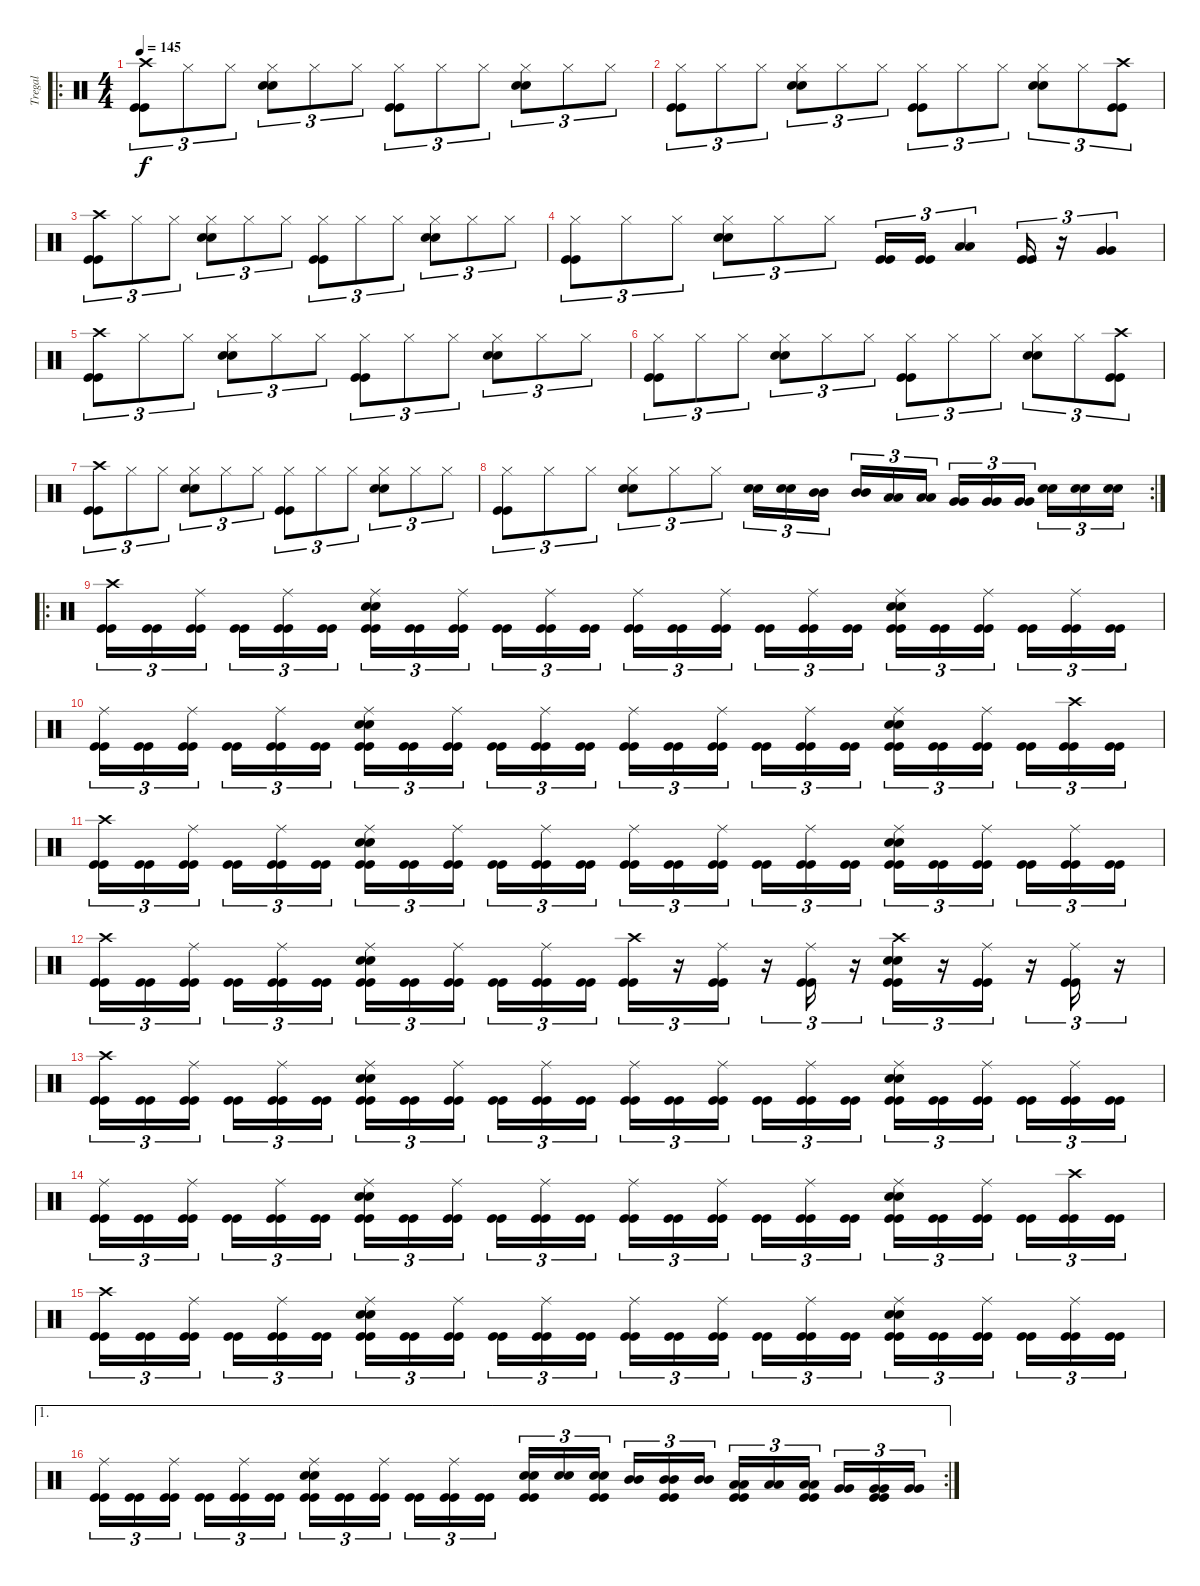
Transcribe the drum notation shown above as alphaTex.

\track ("Tregal" "Tregal") {instrument percussion}
\staff {score}
\articulation defaults
\ro
\ts (4 4)
\tempo 145
\clef neutral
\ks c
("Crash high (hit)" "Kick (hit)" "Kick (hit)").8{tu (3 2) dy f} "Hi-Hat (closed)".8{tu (3 2)} "Hi-Hat (closed)".8{tu (3 2)} ("Hi-Hat (closed)" "Snare (hit) 2" "Snare (hit) 2").8{tu (3 2)} "Hi-Hat (closed)".8{tu (3 2)} "Hi-Hat (closed)".8{tu (3 2)} ("Kick (hit)" "Kick (hit)" "Hi-Hat (closed)").8{tu (3 2)} "Hi-Hat (closed)".8{tu (3 2)} "Hi-Hat (closed)".8{tu (3 2)} ("Hi-Hat (closed)" "Snare (hit) 2" "Snare (hit) 2").8{tu (3 2)} "Hi-Hat (closed)".8{tu (3 2)} "Hi-Hat (closed)".8{tu (3 2)} |
("Kick (hit)" "Kick (hit)" "Hi-Hat (closed)").8{tu (3 2)} "Hi-Hat (closed)".8{tu (3 2)} "Hi-Hat (closed)".8{tu (3 2)} ("Hi-Hat (closed)" "Snare (hit) 2" "Snare (hit) 2").8{tu (3 2)} "Hi-Hat (closed)".8{tu (3 2)} "Hi-Hat (closed)".8{tu (3 2)} ("Kick (hit)" "Kick (hit)" "Hi-Hat (closed)").8{tu (3 2)} "Hi-Hat (closed)".8{tu (3 2)} "Hi-Hat (closed)".8{tu (3 2)} ("Hi-Hat (closed)" "Snare (hit) 2" "Snare (hit) 2").8{tu (3 2)} "Hi-Hat (closed)".8{tu (3 2)} ("Crash high (hit)" "Kick (hit)" "Kick (hit)").8{tu (3 2)} |
("Crash high (hit)" "Kick (hit)" "Kick (hit)").8{tu (3 2)} "Hi-Hat (closed)".8{tu (3 2)} "Hi-Hat (closed)".8{tu (3 2)} ("Hi-Hat (closed)" "Snare (hit) 2" "Snare (hit) 2").8{tu (3 2)} "Hi-Hat (closed)".8{tu (3 2)} "Hi-Hat (closed)".8{tu (3 2)} ("Kick (hit)" "Kick (hit)" "Hi-Hat (closed)").8{tu (3 2)} "Hi-Hat (closed)".8{tu (3 2)} "Hi-Hat (closed)".8{tu (3 2)} ("Hi-Hat (closed)" "Snare (hit) 2" "Snare (hit) 2").8{tu (3 2)} "Hi-Hat (closed)".8{tu (3 2)} "Hi-Hat (closed)".8{tu (3 2)} |
("Kick (hit)" "Kick (hit)" "Hi-Hat (closed)").8{tu (3 2)} "Hi-Hat (closed)".8{tu (3 2)} "Hi-Hat (closed)".8{tu (3 2)} ("Hi-Hat (closed)" "Snare (hit) 2" "Snare (hit) 2").8{tu (3 2)} "Hi-Hat (closed)".8{tu (3 2)} "Hi-Hat (closed)".8{tu (3 2)} ("Kick (hit)" "Kick (hit)").16{tu (3 2)} ("Kick (hit)" "Kick (hit)").16{tu (3 2)} ("Low Tom (hit)" "Low Tom (hit)").4{tu (3 2)} ("Kick (hit)" "Kick (hit)").16{tu (3 2)} r.16{tu (3 2)} ("Very Low Tom (hit)" "Very Low Tom (hit)").4{tu (3 2)} |
("Crash high (hit)" "Kick (hit)" "Kick (hit)").8{tu (3 2)} "Hi-Hat (closed)".8{tu (3 2)} "Hi-Hat (closed)".8{tu (3 2)} ("Hi-Hat (closed)" "Snare (hit) 2" "Snare (hit) 2").8{tu (3 2)} "Hi-Hat (closed)".8{tu (3 2)} "Hi-Hat (closed)".8{tu (3 2)} ("Kick (hit)" "Kick (hit)" "Hi-Hat (closed)").8{tu (3 2)} "Hi-Hat (closed)".8{tu (3 2)} "Hi-Hat (closed)".8{tu (3 2)} ("Hi-Hat (closed)" "Snare (hit) 2" "Snare (hit) 2").8{tu (3 2)} "Hi-Hat (closed)".8{tu (3 2)} "Hi-Hat (closed)".8{tu (3 2)} |
("Kick (hit)" "Kick (hit)" "Hi-Hat (closed)").8{tu (3 2)} "Hi-Hat (closed)".8{tu (3 2)} "Hi-Hat (closed)".8{tu (3 2)} ("Hi-Hat (closed)" "Snare (hit) 2" "Snare (hit) 2").8{tu (3 2)} "Hi-Hat (closed)".8{tu (3 2)} "Hi-Hat (closed)".8{tu (3 2)} ("Kick (hit)" "Kick (hit)" "Hi-Hat (closed)").8{tu (3 2)} "Hi-Hat (closed)".8{tu (3 2)} "Hi-Hat (closed)".8{tu (3 2)} ("Hi-Hat (closed)" "Snare (hit) 2" "Snare (hit) 2").8{tu (3 2)} "Hi-Hat (closed)".8{tu (3 2)} ("Crash high (hit)" "Kick (hit)" "Kick (hit)").8{tu (3 2)} |
("Crash high (hit)" "Kick (hit)" "Kick (hit)").8{tu (3 2)} "Hi-Hat (closed)".8{tu (3 2)} "Hi-Hat (closed)".8{tu (3 2)} ("Hi-Hat (closed)" "Snare (hit) 2" "Snare (hit) 2").8{tu (3 2)} "Hi-Hat (closed)".8{tu (3 2)} "Hi-Hat (closed)".8{tu (3 2)} ("Kick (hit)" "Kick (hit)" "Hi-Hat (closed)").8{tu (3 2)} "Hi-Hat (closed)".8{tu (3 2)} "Hi-Hat (closed)".8{tu (3 2)} ("Hi-Hat (closed)" "Snare (hit) 2" "Snare (hit) 2").8{tu (3 2)} "Hi-Hat (closed)".8{tu (3 2)} "Hi-Hat (closed)".8{tu (3 2)} |
\rc 2
("Kick (hit)" "Kick (hit)" "Hi-Hat (closed)").8{tu (3 2)} "Hi-Hat (closed)".8{tu (3 2)} "Hi-Hat (closed)".8{tu (3 2)} ("Hi-Hat (closed)" "Snare (hit) 2" "Snare (hit) 2").8{tu (3 2)} "Hi-Hat (closed)".8{tu (3 2)} "Hi-Hat (closed)".8{tu (3 2)} ("Snare (hit) 2" "Snare (hit) 2").16{tu (3 2)} ("Snare (hit) 2" "Snare (hit) 2").16{tu (3 2)} ("Mid Tom (hit)" "Mid Tom (hit)").16{tu (3 2)} ("Mid Tom (hit)" "Mid Tom (hit)").16{tu (3 2)} ("Low Tom (hit)" "Low Tom (hit)").16{tu (3 2)} ("Low Tom (hit)" "Low Tom (hit)").16{tu (3 2)} ("Very Low Tom (hit)" "Very Low Tom (hit)").16{tu (3 2)} ("Very Low Tom (hit)" "Very Low Tom (hit)").16{tu (3 2)} ("Very Low Tom (hit)" "Very Low Tom (hit)").16{tu (3 2)} ("Snare (hit) 2" "Snare (hit) 2").16{tu (3 2)} ("Snare (hit) 2" "Snare (hit) 2").16{tu (3 2)} ("Snare (hit) 2" "Snare (hit) 2").16{tu (3 2)} |
\ro
("Crash high (hit)" "Kick (hit)" "Kick (hit)").16{tu (3 2)} ("Kick (hit)" "Kick (hit)").16{tu (3 2)} ("Kick (hit)" "Kick (hit)" "Ride (middle)").16{tu (3 2)} ("Kick (hit)" "Kick (hit)").16{tu (3 2)} ("Kick (hit)" "Kick (hit)" "Ride (middle)").16{tu (3 2)} ("Kick (hit)" "Kick (hit)").16{tu (3 2)} ("Kick (hit)" "Kick (hit)" "Ride (middle)" "Snare (hit) 2" "Snare (hit) 2").16{tu (3 2)} ("Kick (hit)" "Kick (hit)").16{tu (3 2)} ("Kick (hit)" "Kick (hit)" "Ride (middle)").16{tu (3 2)} ("Kick (hit)" "Kick (hit)").16{tu (3 2)} ("Kick (hit)" "Kick (hit)" "Ride (middle)").16{tu (3 2)} ("Kick (hit)" "Kick (hit)").16{tu (3 2)} ("Kick (hit)" "Kick (hit)" "Ride (middle)").16{tu (3 2)} ("Kick (hit)" "Kick (hit)").16{tu (3 2)} ("Kick (hit)" "Kick (hit)" "Ride (middle)").16{tu (3 2)} ("Kick (hit)" "Kick (hit)").16{tu (3 2)} ("Kick (hit)" "Kick (hit)" "Ride (middle)").16{tu (3 2)} ("Kick (hit)" "Kick (hit)").16{tu (3 2)} ("Kick (hit)" "Kick (hit)" "Ride (middle)" "Snare (hit) 2" "Snare (hit) 2").16{tu (3 2)} ("Kick (hit)" "Kick (hit)").16{tu (3 2)} ("Kick (hit)" "Kick (hit)" "Ride (middle)").16{tu (3 2)} ("Kick (hit)" "Kick (hit)").16{tu (3 2)} ("Kick (hit)" "Kick (hit)" "Ride (middle)").16{tu (3 2)} ("Kick (hit)" "Kick (hit)").16{tu (3 2)} |
("Kick (hit)" "Kick (hit)" "Ride (middle)").16{tu (3 2)} ("Kick (hit)" "Kick (hit)").16{tu (3 2)} ("Kick (hit)" "Kick (hit)" "Ride (middle)").16{tu (3 2)} ("Kick (hit)" "Kick (hit)").16{tu (3 2)} ("Kick (hit)" "Kick (hit)" "Ride (middle)").16{tu (3 2)} ("Kick (hit)" "Kick (hit)").16{tu (3 2)} ("Kick (hit)" "Kick (hit)" "Ride (middle)" "Snare (hit) 2" "Snare (hit) 2").16{tu (3 2)} ("Kick (hit)" "Kick (hit)").16{tu (3 2)} ("Kick (hit)" "Kick (hit)" "Ride (middle)").16{tu (3 2)} ("Kick (hit)" "Kick (hit)").16{tu (3 2)} ("Kick (hit)" "Kick (hit)" "Ride (middle)").16{tu (3 2)} ("Kick (hit)" "Kick (hit)").16{tu (3 2)} ("Kick (hit)" "Kick (hit)" "Ride (middle)").16{tu (3 2)} ("Kick (hit)" "Kick (hit)").16{tu (3 2)} ("Kick (hit)" "Kick (hit)" "Ride (middle)").16{tu (3 2)} ("Kick (hit)" "Kick (hit)").16{tu (3 2)} ("Kick (hit)" "Kick (hit)" "Ride (middle)").16{tu (3 2)} ("Kick (hit)" "Kick (hit)").16{tu (3 2)} ("Kick (hit)" "Kick (hit)" "Ride (middle)" "Snare (hit) 2" "Snare (hit) 2").16{tu (3 2)} ("Kick (hit)" "Kick (hit)").16{tu (3 2)} ("Kick (hit)" "Kick (hit)" "Ride (middle)").16{tu (3 2)} ("Kick (hit)" "Kick (hit)").16{tu (3 2)} ("Crash high (hit)" "Kick (hit)" "Kick (hit)").16{tu (3 2)} ("Kick (hit)" "Kick (hit)").16{tu (3 2)} |
("Crash high (hit)" "Kick (hit)" "Kick (hit)").16{tu (3 2)} ("Kick (hit)" "Kick (hit)").16{tu (3 2)} ("Kick (hit)" "Kick (hit)" "Ride (middle)").16{tu (3 2)} ("Kick (hit)" "Kick (hit)").16{tu (3 2)} ("Kick (hit)" "Kick (hit)" "Ride (middle)").16{tu (3 2)} ("Kick (hit)" "Kick (hit)").16{tu (3 2)} ("Kick (hit)" "Kick (hit)" "Ride (middle)" "Snare (hit) 2" "Snare (hit) 2").16{tu (3 2)} ("Kick (hit)" "Kick (hit)").16{tu (3 2)} ("Kick (hit)" "Kick (hit)" "Ride (middle)").16{tu (3 2)} ("Kick (hit)" "Kick (hit)").16{tu (3 2)} ("Kick (hit)" "Kick (hit)" "Ride (middle)").16{tu (3 2)} ("Kick (hit)" "Kick (hit)").16{tu (3 2)} ("Kick (hit)" "Kick (hit)" "Ride (middle)").16{tu (3 2)} ("Kick (hit)" "Kick (hit)").16{tu (3 2)} ("Kick (hit)" "Kick (hit)" "Ride (middle)").16{tu (3 2)} ("Kick (hit)" "Kick (hit)").16{tu (3 2)} ("Kick (hit)" "Kick (hit)" "Ride (middle)").16{tu (3 2)} ("Kick (hit)" "Kick (hit)").16{tu (3 2)} ("Kick (hit)" "Kick (hit)" "Ride (middle)" "Snare (hit) 2" "Snare (hit) 2").16{tu (3 2)} ("Kick (hit)" "Kick (hit)").16{tu (3 2)} ("Kick (hit)" "Kick (hit)" "Ride (middle)").16{tu (3 2)} ("Kick (hit)" "Kick (hit)").16{tu (3 2)} ("Kick (hit)" "Kick (hit)" "Ride (middle)").16{tu (3 2)} ("Kick (hit)" "Kick (hit)").16{tu (3 2)} |
("Crash high (hit)" "Kick (hit)" "Kick (hit)").16{tu (3 2)} ("Kick (hit)" "Kick (hit)").16{tu (3 2)} ("Kick (hit)" "Kick (hit)" "Ride (middle)").16{tu (3 2)} ("Kick (hit)" "Kick (hit)").16{tu (3 2)} ("Kick (hit)" "Kick (hit)" "Ride (middle)").16{tu (3 2)} ("Kick (hit)" "Kick (hit)").16{tu (3 2)} ("Kick (hit)" "Kick (hit)" "Ride (middle)" "Snare (hit) 2" "Snare (hit) 2").16{tu (3 2)} ("Kick (hit)" "Kick (hit)").16{tu (3 2)} ("Kick (hit)" "Kick (hit)" "Ride (middle)").16{tu (3 2)} ("Kick (hit)" "Kick (hit)").16{tu (3 2)} ("Kick (hit)" "Kick (hit)" "Ride (middle)").16{tu (3 2)} ("Kick (hit)" "Kick (hit)").16{tu (3 2)} ("Crash high (hit)" "Kick (hit)" "Kick (hit)").16{tu (3 2)} r.16{tu (3 2)} ("Kick (hit)" "Kick (hit)" "Ride (middle)").16{tu (3 2)} r.16{tu (3 2)} ("Kick (hit)" "Kick (hit)" "Ride (middle)").16{tu (3 2)} r.16{tu (3 2)} ("Crash high (hit)" "Kick (hit)" "Kick (hit)" "Snare (hit) 2" "Snare (hit) 2").16{tu (3 2)} r.16{tu (3 2)} ("Kick (hit)" "Kick (hit)" "Ride (middle)").16{tu (3 2)} r.16{tu (3 2)} ("Kick (hit)" "Kick (hit)" "Ride (middle)").16{tu (3 2)} r.16{tu (3 2)} |
("Crash high (hit)" "Kick (hit)" "Kick (hit)").16{tu (3 2)} ("Kick (hit)" "Kick (hit)").16{tu (3 2)} ("Kick (hit)" "Kick (hit)" "Ride (middle)").16{tu (3 2)} ("Kick (hit)" "Kick (hit)").16{tu (3 2)} ("Kick (hit)" "Kick (hit)" "Ride (middle)").16{tu (3 2)} ("Kick (hit)" "Kick (hit)").16{tu (3 2)} ("Kick (hit)" "Kick (hit)" "Ride (middle)" "Snare (hit) 2" "Snare (hit) 2").16{tu (3 2)} ("Kick (hit)" "Kick (hit)").16{tu (3 2)} ("Kick (hit)" "Kick (hit)" "Ride (middle)").16{tu (3 2)} ("Kick (hit)" "Kick (hit)").16{tu (3 2)} ("Kick (hit)" "Kick (hit)" "Ride (middle)").16{tu (3 2)} ("Kick (hit)" "Kick (hit)").16{tu (3 2)} ("Kick (hit)" "Kick (hit)" "Ride (middle)").16{tu (3 2)} ("Kick (hit)" "Kick (hit)").16{tu (3 2)} ("Kick (hit)" "Kick (hit)" "Ride (middle)").16{tu (3 2)} ("Kick (hit)" "Kick (hit)").16{tu (3 2)} ("Kick (hit)" "Kick (hit)" "Ride (middle)").16{tu (3 2)} ("Kick (hit)" "Kick (hit)").16{tu (3 2)} ("Kick (hit)" "Kick (hit)" "Ride (middle)" "Snare (hit) 2" "Snare (hit) 2").16{tu (3 2)} ("Kick (hit)" "Kick (hit)").16{tu (3 2)} ("Kick (hit)" "Kick (hit)" "Ride (middle)").16{tu (3 2)} ("Kick (hit)" "Kick (hit)").16{tu (3 2)} ("Kick (hit)" "Kick (hit)" "Ride (middle)").16{tu (3 2)} ("Kick (hit)" "Kick (hit)").16{tu (3 2)} |
("Kick (hit)" "Kick (hit)" "Ride (middle)").16{tu (3 2)} ("Kick (hit)" "Kick (hit)").16{tu (3 2)} ("Kick (hit)" "Kick (hit)" "Ride (middle)").16{tu (3 2)} ("Kick (hit)" "Kick (hit)").16{tu (3 2)} ("Kick (hit)" "Kick (hit)" "Ride (middle)").16{tu (3 2)} ("Kick (hit)" "Kick (hit)").16{tu (3 2)} ("Kick (hit)" "Kick (hit)" "Ride (middle)" "Snare (hit) 2" "Snare (hit) 2").16{tu (3 2)} ("Kick (hit)" "Kick (hit)").16{tu (3 2)} ("Kick (hit)" "Kick (hit)" "Ride (middle)").16{tu (3 2)} ("Kick (hit)" "Kick (hit)").16{tu (3 2)} ("Kick (hit)" "Kick (hit)" "Ride (middle)").16{tu (3 2)} ("Kick (hit)" "Kick (hit)").16{tu (3 2)} ("Kick (hit)" "Kick (hit)" "Ride (middle)").16{tu (3 2)} ("Kick (hit)" "Kick (hit)").16{tu (3 2)} ("Kick (hit)" "Kick (hit)" "Ride (middle)").16{tu (3 2)} ("Kick (hit)" "Kick (hit)").16{tu (3 2)} ("Kick (hit)" "Kick (hit)" "Ride (middle)").16{tu (3 2)} ("Kick (hit)" "Kick (hit)").16{tu (3 2)} ("Kick (hit)" "Kick (hit)" "Ride (middle)" "Snare (hit) 2" "Snare (hit) 2").16{tu (3 2)} ("Kick (hit)" "Kick (hit)").16{tu (3 2)} ("Kick (hit)" "Kick (hit)" "Ride (middle)").16{tu (3 2)} ("Kick (hit)" "Kick (hit)").16{tu (3 2)} ("Crash high (hit)" "Kick (hit)" "Kick (hit)").16{tu (3 2)} ("Kick (hit)" "Kick (hit)").16{tu (3 2)} |
("Crash high (hit)" "Kick (hit)" "Kick (hit)").16{tu (3 2)} ("Kick (hit)" "Kick (hit)").16{tu (3 2)} ("Kick (hit)" "Kick (hit)" "Ride (middle)").16{tu (3 2)} ("Kick (hit)" "Kick (hit)").16{tu (3 2)} ("Kick (hit)" "Kick (hit)" "Ride (middle)").16{tu (3 2)} ("Kick (hit)" "Kick (hit)").16{tu (3 2)} ("Kick (hit)" "Kick (hit)" "Ride (middle)" "Snare (hit) 2" "Snare (hit) 2").16{tu (3 2)} ("Kick (hit)" "Kick (hit)").16{tu (3 2)} ("Kick (hit)" "Kick (hit)" "Ride (middle)").16{tu (3 2)} ("Kick (hit)" "Kick (hit)").16{tu (3 2)} ("Kick (hit)" "Kick (hit)" "Ride (middle)").16{tu (3 2)} ("Kick (hit)" "Kick (hit)").16{tu (3 2)} ("Kick (hit)" "Kick (hit)" "Ride (middle)").16{tu (3 2)} ("Kick (hit)" "Kick (hit)").16{tu (3 2)} ("Kick (hit)" "Kick (hit)" "Ride (middle)").16{tu (3 2)} ("Kick (hit)" "Kick (hit)").16{tu (3 2)} ("Kick (hit)" "Kick (hit)" "Ride (middle)").16{tu (3 2)} ("Kick (hit)" "Kick (hit)").16{tu (3 2)} ("Kick (hit)" "Kick (hit)" "Ride (middle)" "Snare (hit) 2" "Snare (hit) 2").16{tu (3 2)} ("Kick (hit)" "Kick (hit)").16{tu (3 2)} ("Kick (hit)" "Kick (hit)" "Ride (middle)").16{tu (3 2)} ("Kick (hit)" "Kick (hit)").16{tu (3 2)} ("Kick (hit)" "Kick (hit)" "Ride (middle)").16{tu (3 2)} ("Kick (hit)" "Kick (hit)").16{tu (3 2)} |
\ae 1
\rc 2
("Kick (hit)" "Kick (hit)" "Ride (middle)").16{tu (3 2)} ("Kick (hit)" "Kick (hit)").16{tu (3 2)} ("Kick (hit)" "Kick (hit)" "Ride (middle)").16{tu (3 2)} ("Kick (hit)" "Kick (hit)").16{tu (3 2)} ("Kick (hit)" "Kick (hit)" "Ride (middle)").16{tu (3 2)} ("Kick (hit)" "Kick (hit)").16{tu (3 2)} ("Kick (hit)" "Kick (hit)" "Ride (middle)" "Snare (hit) 2" "Snare (hit) 2").16{tu (3 2)} ("Kick (hit)" "Kick (hit)").16{tu (3 2)} ("Kick (hit)" "Kick (hit)" "Ride (middle)").16{tu (3 2)} ("Kick (hit)" "Kick (hit)").16{tu (3 2)} ("Kick (hit)" "Kick (hit)" "Ride (middle)").16{tu (3 2)} ("Kick (hit)" "Kick (hit)").16{tu (3 2)} ("Kick (hit)" "Kick (hit)" "Snare (hit) 2" "Snare (hit) 2").16{tu (3 2)} ("Snare (hit) 2" "Snare (hit) 2").16{tu (3 2)} ("Kick (hit)" "Kick (hit)" "Snare (hit) 2" "Snare (hit) 2").16{tu (3 2)} ("Mid Tom (hit)" "Mid Tom (hit)").16{tu (3 2)} ("Kick (hit)" "Kick (hit)" "Mid Tom (hit)" "Mid Tom (hit)").16{tu (3 2)} ("Mid Tom (hit)" "Mid Tom (hit)").16{tu (3 2)} ("Kick (hit)" "Kick (hit)" "Low Tom (hit)" "Low Tom (hit)").16{tu (3 2)} ("Low Tom (hit)" "Low Tom (hit)").16{tu (3 2)} ("Kick (hit)" "Kick (hit)" "Low Tom (hit)" "Low Tom (hit)").16{tu (3 2)} ("Very Low Tom (hit)" "Very Low Tom (hit)").16{tu (3 2)} ("Kick (hit)" "Kick (hit)" "Very Low Tom (hit)" "Very Low Tom (hit)").16{tu (3 2)} ("Very Low Tom (hit)" "Very Low Tom (hit)").16{tu (3 2)}
